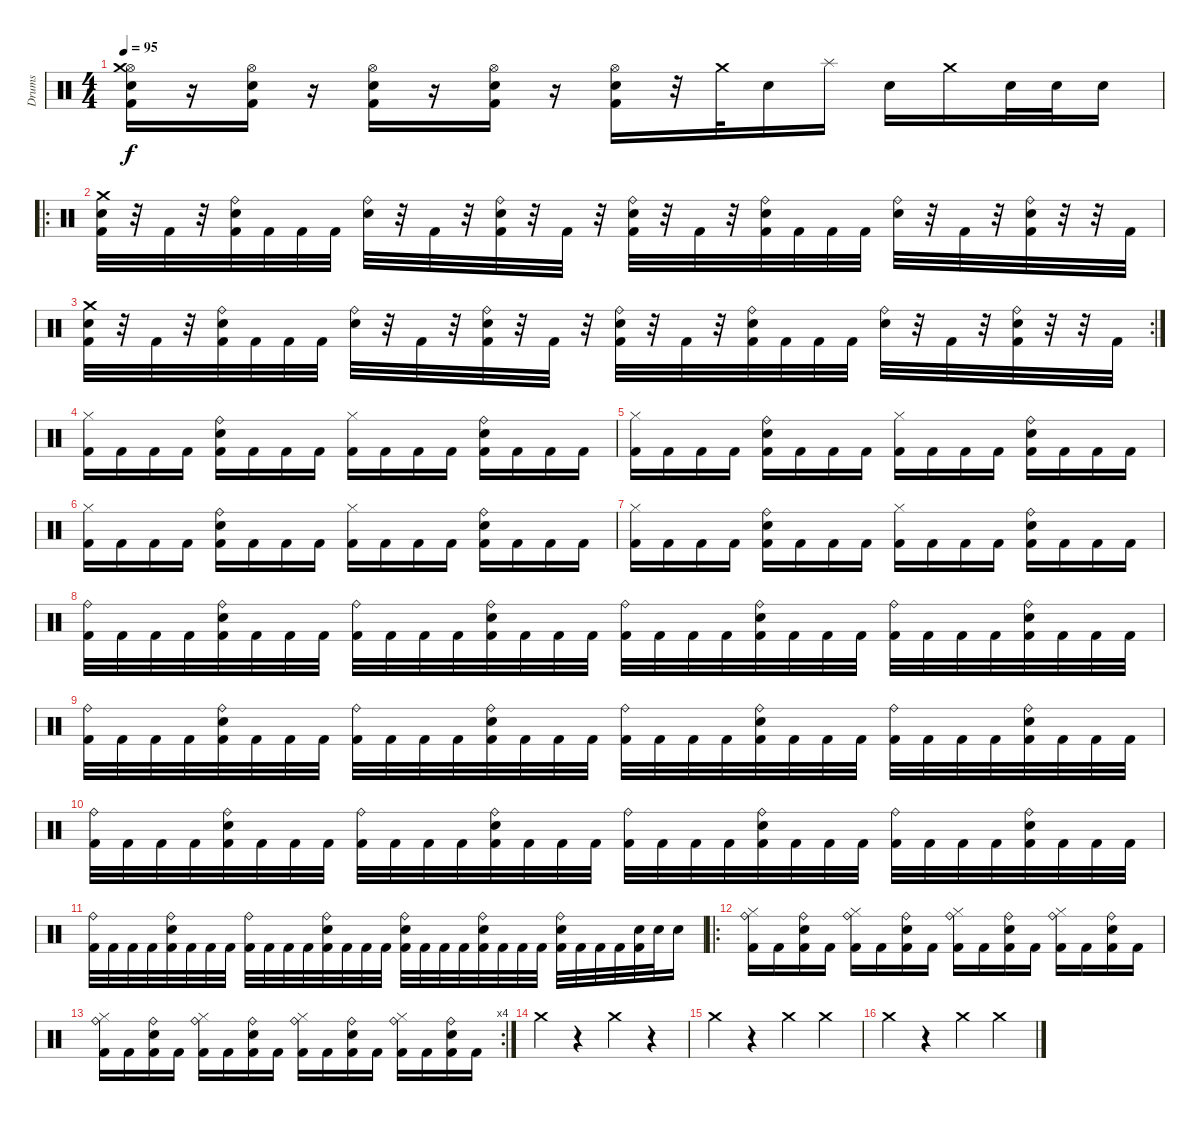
\track ("Drums" "Drums") {instrument percussion}
\staff {score}
\articulation defaults
\ts (4 4)
\tempo 95
\clef neutral
\ks c
("Hi-Hat (open)" "Snare (hit) 2" "Kick (hit) 2" "Crash medium (hit)").16{dy f} r.16 ("Hi-Hat (open)" "Snare (hit) 2" "Kick (hit) 2").16 r.16 ("Hi-Hat (open)" "Snare (hit) 2" "Kick (hit) 2").16 r.16 ("Hi-Hat (open)" "Snare (hit) 2" "Kick (hit) 2").16 r.16 ("Hi-Hat (open)" "Snare (hit) 2" "Kick (hit) 2").16 r.32 "Crash medium (hit)".32 "Snare (hit) 2".16 "Splash (hit)".16 "Snare (hit) 2".16 "Crash medium (hit)".16 "Snare (hit) 2".32 "Snare (hit) 2".32 "Snare (hit) 2".16 |
\ro
("Kick (hit) 2" "Snare (hit) 2" "Crash medium (hit)").32 r.32 "Kick (hit) 2".32 r.32 ("Kick (hit) 2" "Snare (hit) 2" "Ride (bell)").32 "Kick (hit) 2".32 "Kick (hit) 2".32 "Kick (hit) 2".32 ("Snare (hit) 2" "Ride (bell)").32 r.32 "Kick (hit) 2".32 r.32 ("Kick (hit) 2" "Snare (hit) 2" "Ride (bell)").32 r.32 "Kick (hit) 2".32 r.32 ("Kick (hit) 2" "Snare (hit) 2" "Ride (bell)").32 r.32 "Kick (hit) 2".32 r.32 ("Kick (hit) 2" "Snare (hit) 2" "Ride (bell)").32 "Kick (hit) 2".32 "Kick (hit) 2".32 "Kick (hit) 2".32 ("Snare (hit) 2" "Ride (bell)").32 r.32 "Kick (hit) 2".32 r.32 ("Kick (hit) 2" "Snare (hit) 2" "Ride (bell)").32 r.32 r.32 "Kick (hit) 2".32 |
\rc 2
("Kick (hit) 2" "Snare (hit) 2" "Crash medium (hit)").32 r.32 "Kick (hit) 2".32 r.32 ("Kick (hit) 2" "Snare (hit) 2" "Ride (bell)").32 "Kick (hit) 2".32 "Kick (hit) 2".32 "Kick (hit) 2".32 ("Snare (hit) 2" "Ride (bell)").32 r.32 "Kick (hit) 2".32 r.32 ("Kick (hit) 2" "Snare (hit) 2" "Ride (bell)").32 r.32 "Kick (hit) 2".32 r.32 ("Kick (hit) 2" "Snare (hit) 2" "Ride (bell)").32 r.32 "Kick (hit) 2".32 r.32 ("Kick (hit) 2" "Snare (hit) 2" "Ride (bell)").32 "Kick (hit) 2".32 "Kick (hit) 2".32 "Kick (hit) 2".32 ("Snare (hit) 2" "Ride (bell)").32 r.32 "Kick (hit) 2".32 r.32 ("Kick (hit) 2" "Snare (hit) 2" "Ride (bell)").32 r.32 r.32 "Kick (hit) 2".32 |
("Kick (hit) 2" "Hi-Hat (closed)").16 "Kick (hit) 2".16 "Kick (hit) 2".16 "Kick (hit) 2".16 ("Kick (hit) 2" "Snare (hit) 2" "Ride (bell)").16 "Kick (hit) 2".16 "Kick (hit) 2".16 "Kick (hit) 2".16 ("Kick (hit) 2" "Hi-Hat (closed)").16 "Kick (hit) 2".16 "Kick (hit) 2".16 "Kick (hit) 2".16 ("Kick (hit) 2" "Snare (hit) 2" "Ride (bell)").16 "Kick (hit) 2".16 "Kick (hit) 2".16 "Kick (hit) 2".16 |
("Kick (hit) 2" "Hi-Hat (closed)").16 "Kick (hit) 2".16 "Kick (hit) 2".16 "Kick (hit) 2".16 ("Kick (hit) 2" "Snare (hit) 2" "Ride (bell)").16 "Kick (hit) 2".16 "Kick (hit) 2".16 "Kick (hit) 2".16 ("Kick (hit) 2" "Hi-Hat (closed)").16 "Kick (hit) 2".16 "Kick (hit) 2".16 "Kick (hit) 2".16 ("Kick (hit) 2" "Snare (hit) 2" "Ride (bell)").16 "Kick (hit) 2".16 "Kick (hit) 2".16 "Kick (hit) 2".16 |
("Kick (hit) 2" "Hi-Hat (closed)").16 "Kick (hit) 2".16 "Kick (hit) 2".16 "Kick (hit) 2".16 ("Kick (hit) 2" "Snare (hit) 2" "Ride (bell)").16 "Kick (hit) 2".16 "Kick (hit) 2".16 "Kick (hit) 2".16 ("Kick (hit) 2" "Hi-Hat (closed)").16 "Kick (hit) 2".16 "Kick (hit) 2".16 "Kick (hit) 2".16 ("Kick (hit) 2" "Snare (hit) 2" "Ride (bell)").16 "Kick (hit) 2".16 "Kick (hit) 2".16 "Kick (hit) 2".16 |
("Kick (hit) 2" "Hi-Hat (closed)").16 "Kick (hit) 2".16 "Kick (hit) 2".16 "Kick (hit) 2".16 ("Kick (hit) 2" "Snare (hit) 2" "Ride (bell)").16 "Kick (hit) 2".16 "Kick (hit) 2".16 "Kick (hit) 2".16 ("Kick (hit) 2" "Hi-Hat (closed)").16 "Kick (hit) 2".16 "Kick (hit) 2".16 "Kick (hit) 2".16 ("Kick (hit) 2" "Snare (hit) 2" "Ride (bell)").16 "Kick (hit) 2".16 "Kick (hit) 2".16 "Kick (hit) 2".16 |
("Kick (hit) 2" "Ride (bell)").32 "Kick (hit) 2".32 "Kick (hit) 2".32 "Kick (hit) 2".32 ("Kick (hit) 2" "Snare (hit) 2" "Ride (bell)").32 "Kick (hit) 2".32 "Kick (hit) 2".32 "Kick (hit) 2".32 ("Kick (hit) 2" "Ride (bell)").32 "Kick (hit) 2".32 "Kick (hit) 2".32 "Kick (hit) 2".32 ("Kick (hit) 2" "Snare (hit) 2" "Ride (bell)").32 "Kick (hit) 2".32 "Kick (hit) 2".32 "Kick (hit) 2".32 ("Kick (hit) 2" "Ride (bell)").32 "Kick (hit) 2".32 "Kick (hit) 2".32 "Kick (hit) 2".32 ("Kick (hit) 2" "Snare (hit) 2" "Ride (bell)").32 "Kick (hit) 2".32 "Kick (hit) 2".32 "Kick (hit) 2".32 ("Kick (hit) 2" "Ride (bell)").32 "Kick (hit) 2".32 "Kick (hit) 2".32 "Kick (hit) 2".32 ("Kick (hit) 2" "Snare (hit) 2" "Ride (bell)").32 "Kick (hit) 2".32 "Kick (hit) 2".32 "Kick (hit) 2".32 |
("Kick (hit) 2" "Ride (bell)").32 "Kick (hit) 2".32 "Kick (hit) 2".32 "Kick (hit) 2".32 ("Kick (hit) 2" "Snare (hit) 2" "Ride (bell)").32 "Kick (hit) 2".32 "Kick (hit) 2".32 "Kick (hit) 2".32 ("Kick (hit) 2" "Ride (bell)").32 "Kick (hit) 2".32 "Kick (hit) 2".32 "Kick (hit) 2".32 ("Kick (hit) 2" "Snare (hit) 2" "Ride (bell)").32 "Kick (hit) 2".32 "Kick (hit) 2".32 "Kick (hit) 2".32 ("Kick (hit) 2" "Ride (bell)").32 "Kick (hit) 2".32 "Kick (hit) 2".32 "Kick (hit) 2".32 ("Kick (hit) 2" "Snare (hit) 2" "Ride (bell)").32 "Kick (hit) 2".32 "Kick (hit) 2".32 "Kick (hit) 2".32 ("Kick (hit) 2" "Ride (bell)").32 "Kick (hit) 2".32 "Kick (hit) 2".32 "Kick (hit) 2".32 ("Kick (hit) 2" "Snare (hit) 2" "Ride (bell)").32 "Kick (hit) 2".32 "Kick (hit) 2".32 "Kick (hit) 2".32 |
("Kick (hit) 2" "Ride (bell)").32 "Kick (hit) 2".32 "Kick (hit) 2".32 "Kick (hit) 2".32 ("Kick (hit) 2" "Snare (hit) 2" "Ride (bell)").32 "Kick (hit) 2".32 "Kick (hit) 2".32 "Kick (hit) 2".32 ("Kick (hit) 2" "Ride (bell)").32 "Kick (hit) 2".32 "Kick (hit) 2".32 "Kick (hit) 2".32 ("Kick (hit) 2" "Snare (hit) 2" "Ride (bell)").32 "Kick (hit) 2".32 "Kick (hit) 2".32 "Kick (hit) 2".32 ("Kick (hit) 2" "Ride (bell)").32 "Kick (hit) 2".32 "Kick (hit) 2".32 "Kick (hit) 2".32 ("Kick (hit) 2" "Snare (hit) 2" "Ride (bell)").32 "Kick (hit) 2".32 "Kick (hit) 2".32 "Kick (hit) 2".32 ("Kick (hit) 2" "Ride (bell)").32 "Kick (hit) 2".32 "Kick (hit) 2".32 "Kick (hit) 2".32 ("Kick (hit) 2" "Snare (hit) 2" "Ride (bell)").32 "Kick (hit) 2".32 "Kick (hit) 2".32 "Kick (hit) 2".32 |
("Kick (hit) 2" "Ride (bell)").32 "Kick (hit) 2".32 "Kick (hit) 2".32 "Kick (hit) 2".32 ("Kick (hit) 2" "Snare (hit) 2" "Ride (bell)").32 "Kick (hit) 2".32 "Kick (hit) 2".32 "Kick (hit) 2".32 ("Kick (hit) 2" "Ride (bell)").32 "Kick (hit) 2".32 "Kick (hit) 2".32 "Kick (hit) 2".32 ("Kick (hit) 2" "Snare (hit) 2" "Ride (bell)").32 "Kick (hit) 2".32 "Kick (hit) 2".32 "Kick (hit) 2".32 ("Kick (hit) 2" "Snare (hit) 2" "Ride (bell)").32 "Kick (hit) 2".32 "Kick (hit) 2".32 "Kick (hit) 2".32 ("Kick (hit) 2" "Snare (hit) 2" "Ride (bell)").32 "Kick (hit) 2".32 "Kick (hit) 2".32 "Kick (hit) 2".32 ("Kick (hit) 2" "Snare (hit) 2" "Ride (bell)").32 "Kick (hit) 2".32 "Kick (hit) 2".32 "Kick (hit) 2".32 ("Kick (hit) 2" "Snare (hit) 2").32 "Snare (hit) 2".32 "Snare (hit) 2".16 |
\ro
("Kick (hit) 2" "Hi-Hat (closed)" "Ride (bell)").16 "Kick (hit) 2".16 ("Kick (hit) 2" "Snare (hit) 2" "Ride (bell)").16 "Kick (hit) 2".16 ("Kick (hit) 2" "Hi-Hat (closed)" "Ride (bell)").16 "Kick (hit) 2".16 ("Kick (hit) 2" "Snare (hit) 2" "Ride (bell)").16 "Kick (hit) 2".16 ("Kick (hit) 2" "Hi-Hat (closed)" "Ride (bell)").16 "Kick (hit) 2".16 ("Kick (hit) 2" "Snare (hit) 2" "Ride (bell)").16 "Kick (hit) 2".16 ("Kick (hit) 2" "Hi-Hat (closed)" "Ride (bell)").16 "Kick (hit) 2".16 ("Kick (hit) 2" "Snare (hit) 2" "Ride (bell)").16 "Kick (hit) 2".16 |
\rc 4
("Kick (hit) 2" "Hi-Hat (closed)" "Ride (bell)").16 "Kick (hit) 2".16 ("Kick (hit) 2" "Snare (hit) 2" "Ride (bell)").16 "Kick (hit) 2".16 ("Kick (hit) 2" "Hi-Hat (closed)" "Ride (bell)").16 "Kick (hit) 2".16 ("Kick (hit) 2" "Snare (hit) 2" "Ride (bell)").16 "Kick (hit) 2".16 ("Kick (hit) 2" "Hi-Hat (closed)" "Ride (bell)").16 "Kick (hit) 2".16 ("Kick (hit) 2" "Snare (hit) 2" "Ride (bell)").16 "Kick (hit) 2".16 ("Kick (hit) 2" "Hi-Hat (closed)" "Ride (bell)").16 "Kick (hit) 2".16 ("Kick (hit) 2" "Snare (hit) 2" "Ride (bell)").16 "Kick (hit) 2".16 |
"Crash medium (hit)".4 r.4 "Crash medium (hit)".4 r.4 |
"Crash medium (hit)".4 r.4 "Crash medium (hit)".4 "Crash medium (hit)".4 |
"Crash medium (hit)".4 r.4 "Crash medium (hit)".4 "Crash medium (hit)".4
